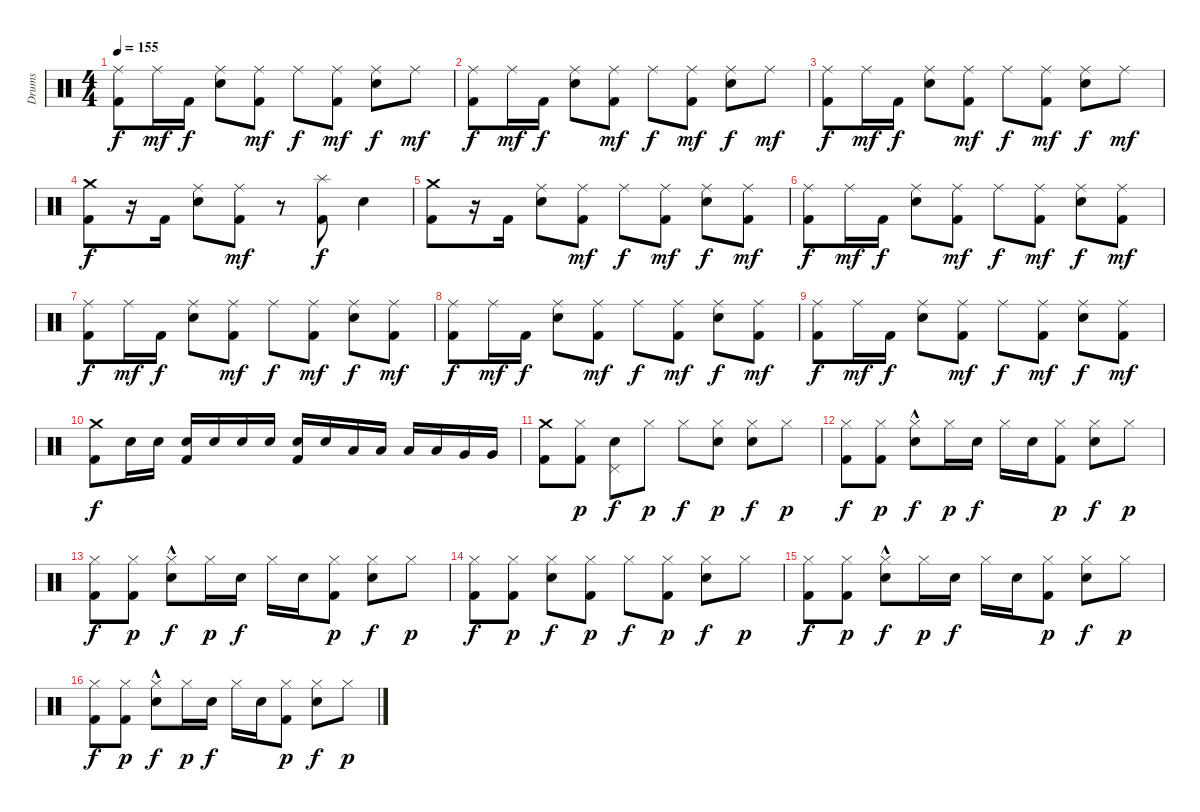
\track ("Drums" "Drums") {instrument percussion}
\staff {score}
\articulation defaults
\ts (4 4)
\tempo 155
\clef neutral
\ks c
("Kick (hit) 2" "Ride (middle)").8{dy f} "Ride (middle)".16{dy mf} "Kick (hit) 2".16{dy f} ("Snare (hit) 2" "Ride (middle)").8 ("Ride (middle)" "Kick (hit) 2").8{dy mf} "Ride (middle)".8{dy f} ("Kick (hit) 2" "Ride (middle)").8{dy mf} ("Snare (hit) 2" "Ride (middle)").8{dy f} "Ride (middle)".8{dy mf} |
("Kick (hit) 2" "Ride (middle)").8{dy f} "Ride (middle)".16{dy mf} "Kick (hit) 2".16{dy f} ("Snare (hit) 2" "Ride (middle)").8 ("Ride (middle)" "Kick (hit) 2").8{dy mf} "Ride (middle)".8{dy f} ("Kick (hit) 2" "Ride (middle)").8{dy mf} ("Snare (hit) 2" "Ride (middle)").8{dy f} "Ride (middle)".8{dy mf} |
("Kick (hit) 2" "Ride (middle)").8{dy f} "Ride (middle)".16{dy mf} "Kick (hit) 2".16{dy f} ("Snare (hit) 2" "Ride (middle)").8 ("Ride (middle)" "Kick (hit) 2").8{dy mf} "Ride (middle)".8{dy f} ("Kick (hit) 2" "Ride (middle)").8{dy mf} ("Snare (hit) 2" "Ride (middle)").8{dy f} "Ride (middle)".8{dy mf} |
("Kick (hit) 2" "Crash medium (hit)").8{dy f} r.16 "Kick (hit) 2".16 ("Snare (hit) 2" "Ride (middle)").8 ("Ride (middle)" "Kick (hit) 2").8{dy mf} r.8 ("Kick (hit) 2" "Splash (hit)").8{dy f} "Snare (hit) 2".4 |
("Kick (hit) 2" "Crash medium (hit)").8 r.16 "Kick (hit) 2".16 ("Snare (hit) 2" "Ride (middle)").8 ("Ride (middle)" "Kick (hit) 2").8{dy mf} "Ride (middle)".8{dy f} ("Kick (hit) 2" "Ride (middle)").8{dy mf} ("Snare (hit) 2" "Ride (middle)").8{dy f} ("Ride (middle)" "Kick (hit) 2").8{dy mf} |
("Kick (hit) 2" "Ride (middle)").8{dy f} "Ride (middle)".16{dy mf} "Kick (hit) 2".16{dy f} ("Snare (hit) 2" "Ride (middle)").8 ("Ride (middle)" "Kick (hit) 2").8{dy mf} "Ride (middle)".8{dy f} ("Kick (hit) 2" "Ride (middle)").8{dy mf} ("Snare (hit) 2" "Ride (middle)").8{dy f} ("Ride (middle)" "Kick (hit) 2").8{dy mf} |
("Kick (hit) 2" "Ride (middle)").8{dy f} "Ride (middle)".16{dy mf} "Kick (hit) 2".16{dy f} ("Snare (hit) 2" "Ride (middle)").8 ("Ride (middle)" "Kick (hit) 2").8{dy mf} "Ride (middle)".8{dy f} ("Kick (hit) 2" "Ride (middle)").8{dy mf} ("Snare (hit) 2" "Ride (middle)").8{dy f} ("Ride (middle)" "Kick (hit) 2").8{dy mf} |
("Kick (hit) 2" "Ride (middle)").8{dy f} "Ride (middle)".16{dy mf} "Kick (hit) 2".16{dy f} ("Snare (hit) 2" "Ride (middle)").8 ("Ride (middle)" "Kick (hit) 2").8{dy mf} "Ride (middle)".8{dy f} ("Kick (hit) 2" "Ride (middle)").8{dy mf} ("Snare (hit) 2" "Ride (middle)").8{dy f} ("Ride (middle)" "Kick (hit) 2").8{dy mf} |
("Kick (hit) 2" "Ride (middle)").8{dy f} "Ride (middle)".16{dy mf} "Kick (hit) 2".16{dy f} ("Snare (hit) 2" "Ride (middle)").8 ("Ride (middle)" "Kick (hit) 2").8{dy mf} "Ride (middle)".8{dy f} ("Kick (hit) 2" "Ride (middle)").8{dy mf} ("Snare (hit) 2" "Ride (middle)").8{dy f} ("Ride (middle)" "Kick (hit) 2").8{dy mf} |
("Crash medium (hit)" "Kick (hit) 2").8{dy f} "Snare (hit) 2".16 "Snare (hit) 2".16 ("Kick (hit) 2" "Snare (hit) 2").16 "Snare (hit) 2".16 "Snare (hit) 2".16 "Snare (hit) 2".16 ("Kick (hit) 2" "Snare (hit) 2").16 "Snare (hit) 2".16 "Low Tom (hit)".16 "Low Tom (hit)".16 "Low Tom (hit)".16 "Low Tom (hit)".16 "Very Low Tom (hit)".16 "Very Low Tom (hit)".16 |
("Crash medium (hit)" "Kick (hit) 2").8 ("Kick (hit) 2" "Hi-Hat (closed)").8{dy p} ("Snare (hit) 2" "Pedal Hi-Hat (hit)").8{dy f} "Hi-Hat (closed)".8{dy p} "Hi-Hat (closed)".8{dy f} ("Snare (hit)" "Hi-Hat (closed)").8{dy p} ("Snare (hit) 2" "Hi-Hat (closed)").8{dy f} "Hi-Hat (closed)".8{dy p} |
("Hi-Hat (closed)" "Kick (hit) 2").8{dy f} ("Kick (hit) 2" "Hi-Hat (closed)").8{dy p} ("Hi-Hat (closed)" "Snare (hit) 2"{hac}).8{dy f} "Hi-Hat (closed)".16{dy p} "Snare (hit) 2".16{dy f} "Hi-Hat (closed)".16 "Snare (hit) 2".16 ("Kick (hit) 2" "Hi-Hat (closed)").8{dy p} ("Hi-Hat (closed)" "Snare (hit) 2").8{dy f} "Hi-Hat (closed)".8{dy p} |
("Hi-Hat (closed)" "Kick (hit) 2").8{dy f} ("Kick (hit) 2" "Hi-Hat (closed)").8{dy p} ("Hi-Hat (closed)" "Snare (hit) 2"{hac}).8{dy f} "Hi-Hat (closed)".16{dy p} "Snare (hit) 2".16{dy f} "Hi-Hat (closed)".16 "Snare (hit) 2".16 ("Kick (hit) 2" "Hi-Hat (closed)").8{dy p} ("Hi-Hat (closed)" "Snare (hit) 2").8{dy f} "Hi-Hat (closed)".8{dy p} |
("Hi-Hat (closed)" "Kick (hit) 2").8{dy f} ("Hi-Hat (closed)" "Kick (hit) 2").8{dy p} ("Hi-Hat (closed)" "Snare (hit) 2").8{dy f} ("Hi-Hat (closed)" "Kick (hit) 2").8{dy p} "Hi-Hat (closed)".8{dy f} ("Hi-Hat (closed)" "Kick (hit) 2").8{dy p} ("Hi-Hat (closed)" "Snare (hit) 2").8{dy f} "Hi-Hat (closed)".8{dy p} |
("Hi-Hat (closed)" "Kick (hit) 2").8{dy f} ("Kick (hit) 2" "Hi-Hat (closed)").8{dy p} ("Hi-Hat (closed)" "Snare (hit) 2"{hac}).8{dy f} "Hi-Hat (closed)".16{dy p} "Snare (hit) 2".16{dy f} "Hi-Hat (closed)".16 "Snare (hit) 2".16 ("Kick (hit) 2" "Hi-Hat (closed)").8{dy p} ("Hi-Hat (closed)" "Snare (hit) 2").8{dy f} "Hi-Hat (closed)".8{dy p} |
("Hi-Hat (closed)" "Kick (hit) 2").8{dy f} ("Kick (hit) 2" "Hi-Hat (closed)").8{dy p} ("Hi-Hat (closed)" "Snare (hit) 2"{hac}).8{dy f} "Hi-Hat (closed)".16{dy p} "Snare (hit) 2".16{dy f} "Hi-Hat (closed)".16 "Snare (hit) 2".16 ("Kick (hit) 2" "Hi-Hat (closed)").8{dy p} ("Hi-Hat (closed)" "Snare (hit) 2").8{dy f} "Hi-Hat (closed)".8{dy p}
